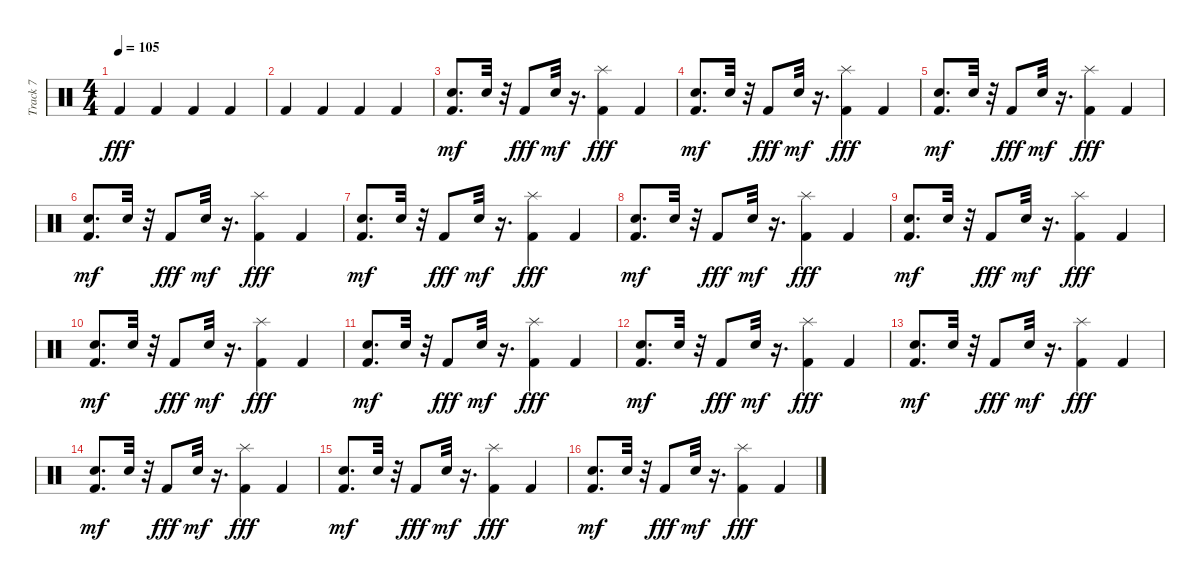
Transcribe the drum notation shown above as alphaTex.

\track ("Track 7" "Track 7") {instrument percussion}
\staff {score}
\articulation defaults
\ts (4 4)
\tempo 105
\clef neutral
\ks c "Kick (hit) 2".4{dy fff} "Kick (hit) 2".4 "Kick (hit) 2".4 "Kick (hit) 2".4
|
"Kick (hit) 2".4 "Kick (hit) 2".4 "Kick (hit) 2".4 "Kick (hit) 2".4 |
("Kick (hit) 2" "Snare (hit) 2").8{d dy mf} "Snare (hit) 2".32 r.32 "Kick (hit) 2".8{dy fff} "Snare (hit) 2".32{dy mf} r.16{d} ("Kick (hit) 2" "Splash (hit)").4{dy fff} "Kick (hit) 2".4 |
("Kick (hit) 2" "Snare (hit) 2").8{d dy mf} "Snare (hit) 2".32 r.32 "Kick (hit) 2".8{dy fff} "Snare (hit) 2".32{dy mf} r.16{d} ("Kick (hit) 2" "Splash (hit)").4{dy fff} "Kick (hit) 2".4 |
("Kick (hit) 2" "Snare (hit) 2").8{d dy mf} "Snare (hit) 2".32 r.32 "Kick (hit) 2".8{dy fff} "Snare (hit) 2".32{dy mf} r.16{d} ("Kick (hit) 2" "Splash (hit)").4{dy fff} "Kick (hit) 2".4 |
("Kick (hit) 2" "Snare (hit) 2").8{d dy mf} "Snare (hit) 2".32 r.32 "Kick (hit) 2".8{dy fff} "Snare (hit) 2".32{dy mf} r.16{d} ("Kick (hit) 2" "Splash (hit)").4{dy fff} "Kick (hit) 2".4 |
("Kick (hit) 2" "Snare (hit) 2").8{d dy mf} "Snare (hit) 2".32 r.32 "Kick (hit) 2".8{dy fff} "Snare (hit) 2".32{dy mf} r.16{d} ("Kick (hit) 2" "Splash (hit)").4{dy fff} "Kick (hit) 2".4 |
("Kick (hit) 2" "Snare (hit) 2").8{d dy mf} "Snare (hit) 2".32 r.32 "Kick (hit) 2".8{dy fff} "Snare (hit) 2".32{dy mf} r.16{d} ("Kick (hit) 2" "Splash (hit)").4{dy fff} "Kick (hit) 2".4 |
("Kick (hit) 2" "Snare (hit) 2").8{d dy mf} "Snare (hit) 2".32 r.32 "Kick (hit) 2".8{dy fff} "Snare (hit) 2".32{dy mf} r.16{d} ("Kick (hit) 2" "Splash (hit)").4{dy fff} "Kick (hit) 2".4 |
("Kick (hit) 2" "Snare (hit) 2").8{d dy mf} "Snare (hit) 2".32 r.32 "Kick (hit) 2".8{dy fff} "Snare (hit) 2".32{dy mf} r.16{d} ("Kick (hit) 2" "Splash (hit)").4{dy fff} "Kick (hit) 2".4 |
("Kick (hit) 2" "Snare (hit) 2").8{d dy mf} "Snare (hit) 2".32 r.32 "Kick (hit) 2".8{dy fff} "Snare (hit) 2".32{dy mf} r.16{d} ("Kick (hit) 2" "Splash (hit)").4{dy fff} "Kick (hit) 2".4 |
("Kick (hit) 2" "Snare (hit) 2").8{d dy mf} "Snare (hit) 2".32 r.32 "Kick (hit) 2".8{dy fff} "Snare (hit) 2".32{dy mf} r.16{d} ("Kick (hit) 2" "Splash (hit)").4{dy fff} "Kick (hit) 2".4 |
("Kick (hit) 2" "Snare (hit) 2").8{d dy mf} "Snare (hit) 2".32 r.32 "Kick (hit) 2".8{dy fff} "Snare (hit) 2".32{dy mf} r.16{d} ("Kick (hit) 2" "Splash (hit)").4{dy fff} "Kick (hit) 2".4 |
("Kick (hit) 2" "Snare (hit) 2").8{d dy mf} "Snare (hit) 2".32 r.32 "Kick (hit) 2".8{dy fff} "Snare (hit) 2".32{dy mf} r.16{d} ("Kick (hit) 2" "Splash (hit)").4{dy fff} "Kick (hit) 2".4 |
("Kick (hit) 2" "Snare (hit) 2").8{d dy mf} "Snare (hit) 2".32 r.32 "Kick (hit) 2".8{dy fff} "Snare (hit) 2".32{dy mf} r.16{d} ("Kick (hit) 2" "Splash (hit)").4{dy fff} "Kick (hit) 2".4 |
("Kick (hit) 2" "Snare (hit) 2").8{d dy mf} "Snare (hit) 2".32 r.32 "Kick (hit) 2".8{dy fff} "Snare (hit) 2".32{dy mf} r.16{d} ("Kick (hit) 2" "Splash (hit)").4{dy fff} "Kick (hit) 2".4
